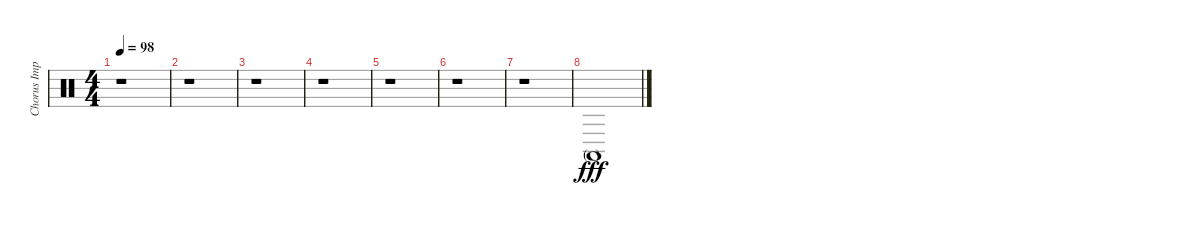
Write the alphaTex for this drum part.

\track ("Chorus Impact Drum" "Chorus Imp") {instrument percussion}
\staff {score}
\articulation defaults
\ts (4 4)
\tempo 98
\clef neutral
\ks c
r.1{dy fff} |
r.1 |
r.1 |
r.1 |
r.1 |
r.1 |
r.1 |
"Conga high (mute)".1
